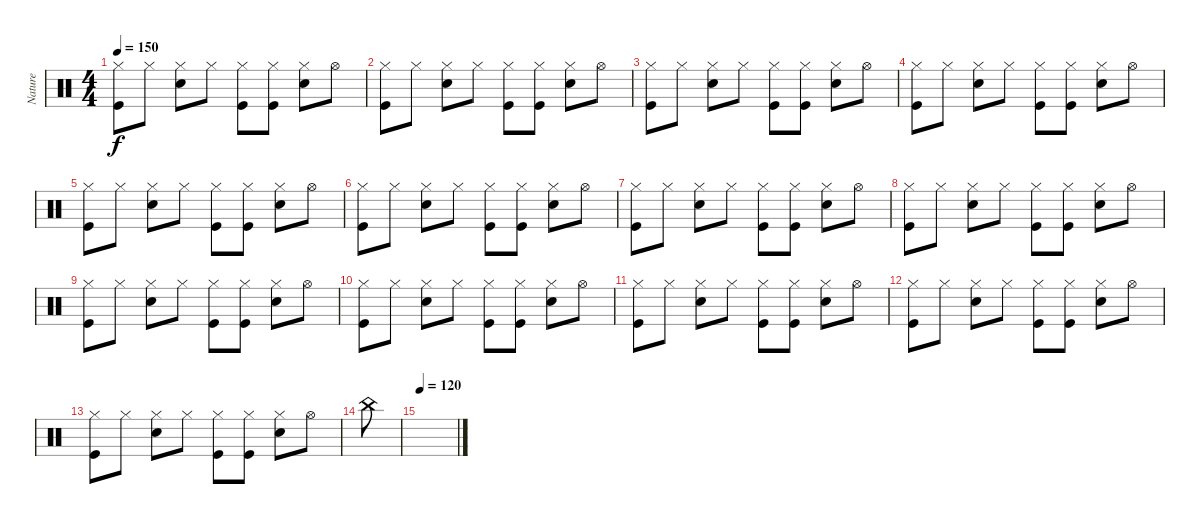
\track ("Nature" "Nature") {instrument percussion}
\staff {score}
\articulation defaults
\ts (4 4)
\tempo 150
\clef neutral
\ks c
("Hi-Hat (closed)" "Kick (hit)").8{dy f} "Hi-Hat (closed)".8 ("Hi-Hat (closed)" "Electric Snare (hit)").8 "Hi-Hat (closed)".8 ("Hi-Hat (closed)" "Kick (hit)").8 ("Hi-Hat (closed)" "Kick (hit)").8 ("Hi-Hat (closed)" "Electric Snare (hit)").8 "Hi-Hat (open)".8 |
("Hi-Hat (closed)" "Kick (hit)").8 "Hi-Hat (closed)".8 ("Hi-Hat (closed)" "Electric Snare (hit)").8 "Hi-Hat (closed)".8 ("Hi-Hat (closed)" "Kick (hit)").8 ("Hi-Hat (closed)" "Kick (hit)").8 ("Hi-Hat (closed)" "Electric Snare (hit)").8 "Hi-Hat (open)".8 |
("Hi-Hat (closed)" "Kick (hit)").8 "Hi-Hat (closed)".8 ("Hi-Hat (closed)" "Electric Snare (hit)").8 "Hi-Hat (closed)".8 ("Hi-Hat (closed)" "Kick (hit)").8 ("Hi-Hat (closed)" "Kick (hit)").8 ("Hi-Hat (closed)" "Electric Snare (hit)").8 "Hi-Hat (open)".8 |
("Hi-Hat (closed)" "Kick (hit)").8 "Hi-Hat (closed)".8 ("Hi-Hat (closed)" "Electric Snare (hit)").8 "Hi-Hat (closed)".8 ("Hi-Hat (closed)" "Kick (hit)").8 ("Hi-Hat (closed)" "Kick (hit)").8 ("Hi-Hat (closed)" "Electric Snare (hit)").8 "Hi-Hat (open)".8 |
("Hi-Hat (closed)" "Kick (hit)").8 "Hi-Hat (closed)".8 ("Hi-Hat (closed)" "Electric Snare (hit)").8 "Hi-Hat (closed)".8 ("Hi-Hat (closed)" "Kick (hit)").8 ("Hi-Hat (closed)" "Kick (hit)").8 ("Hi-Hat (closed)" "Electric Snare (hit)").8 "Hi-Hat (open)".8 |
("Hi-Hat (closed)" "Kick (hit)").8 "Hi-Hat (closed)".8 ("Hi-Hat (closed)" "Electric Snare (hit)").8 "Hi-Hat (closed)".8 ("Hi-Hat (closed)" "Kick (hit)").8 ("Hi-Hat (closed)" "Kick (hit)").8 ("Hi-Hat (closed)" "Electric Snare (hit)").8 "Hi-Hat (open)".8 |
("Hi-Hat (closed)" "Kick (hit)").8 "Hi-Hat (closed)".8 ("Hi-Hat (closed)" "Electric Snare (hit)").8 "Hi-Hat (closed)".8 ("Hi-Hat (closed)" "Kick (hit)").8 ("Hi-Hat (closed)" "Kick (hit)").8 ("Hi-Hat (closed)" "Electric Snare (hit)").8 "Hi-Hat (open)".8 |
("Hi-Hat (closed)" "Kick (hit)").8 "Hi-Hat (closed)".8 ("Hi-Hat (closed)" "Electric Snare (hit)").8 "Hi-Hat (closed)".8 ("Hi-Hat (closed)" "Kick (hit)").8 ("Hi-Hat (closed)" "Kick (hit)").8 ("Hi-Hat (closed)" "Electric Snare (hit)").8 "Hi-Hat (open)".8 |
("Hi-Hat (closed)" "Kick (hit)").8 "Hi-Hat (closed)".8 ("Hi-Hat (closed)" "Electric Snare (hit)").8 "Hi-Hat (closed)".8 ("Hi-Hat (closed)" "Kick (hit)").8 ("Hi-Hat (closed)" "Kick (hit)").8 ("Hi-Hat (closed)" "Electric Snare (hit)").8 "Hi-Hat (open)".8 |
("Hi-Hat (closed)" "Kick (hit)").8 "Hi-Hat (closed)".8 ("Hi-Hat (closed)" "Electric Snare (hit)").8 "Hi-Hat (closed)".8 ("Hi-Hat (closed)" "Kick (hit)").8 ("Hi-Hat (closed)" "Kick (hit)").8 ("Hi-Hat (closed)" "Electric Snare (hit)").8 "Hi-Hat (open)".8 |
("Hi-Hat (closed)" "Kick (hit)").8 "Hi-Hat (closed)".8 ("Hi-Hat (closed)" "Electric Snare (hit)").8 "Hi-Hat (closed)".8 ("Hi-Hat (closed)" "Kick (hit)").8 ("Hi-Hat (closed)" "Kick (hit)").8 ("Hi-Hat (closed)" "Electric Snare (hit)").8 "Hi-Hat (open)".8 |
("Hi-Hat (closed)" "Kick (hit)").8 "Hi-Hat (closed)".8 ("Hi-Hat (closed)" "Electric Snare (hit)").8 "Hi-Hat (closed)".8 ("Hi-Hat (closed)" "Kick (hit)").8 ("Hi-Hat (closed)" "Kick (hit)").8 ("Hi-Hat (closed)" "Electric Snare (hit)").8 "Hi-Hat (open)".8 |
("Hi-Hat (closed)" "Kick (hit)").8 "Hi-Hat (closed)".8 ("Hi-Hat (closed)" "Electric Snare (hit)").8 "Hi-Hat (closed)".8 ("Hi-Hat (closed)" "Kick (hit)").8 ("Hi-Hat (closed)" "Kick (hit)").8 ("Hi-Hat (closed)" "Electric Snare (hit)").8 "Hi-Hat (open)".8 |
"China (hit)".8 |
\tempo 120
